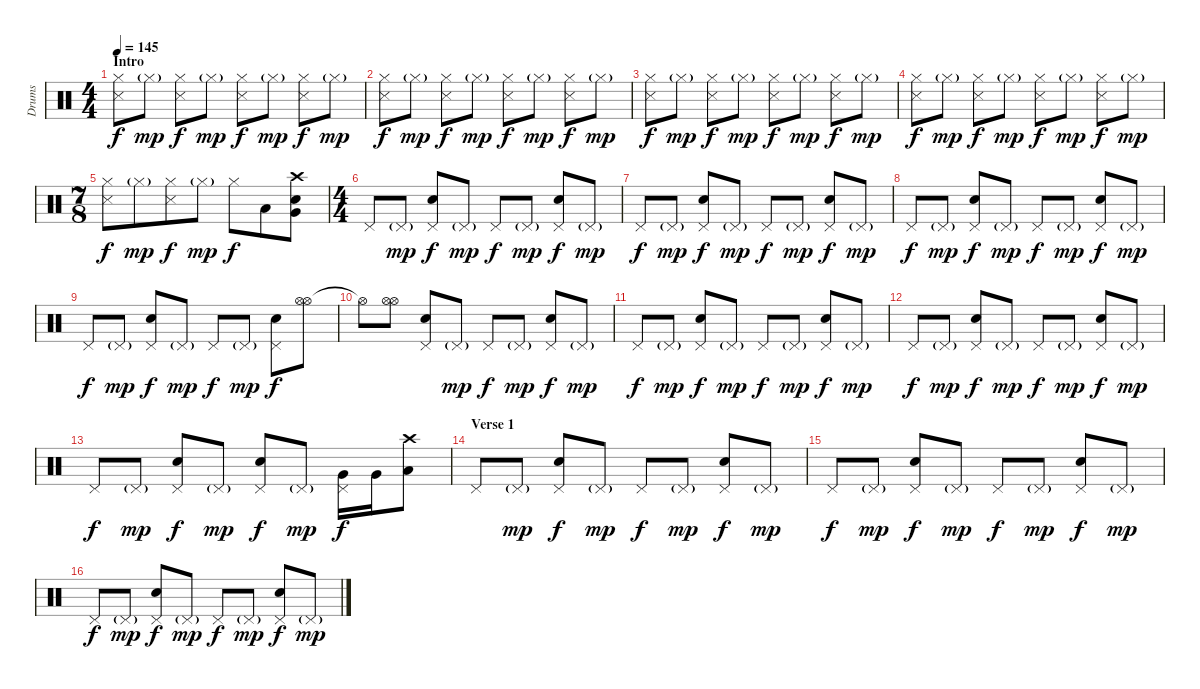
\track ("Drums" "Drums") {instrument percussion}
\staff {score}
\articulation defaults
\ts (4 4)
\section ("" "Intro")
\tempo 145
\clef neutral
\ks c
("Hi-Hat (closed)" "Snare (side stick) 3").8{dy f} "Hi-Hat (closed)"{g}.8{dy mp} ("Hi-Hat (closed)" "Snare (side stick) 3").8{dy f} "Hi-Hat (closed)"{g}.8{dy mp} ("Hi-Hat (closed)" "Snare (side stick) 3").8{dy f} "Hi-Hat (closed)"{g}.8{dy mp} ("Hi-Hat (closed)" "Snare (side stick) 3").8{dy f} "Hi-Hat (closed)"{g}.8{dy mp} |
("Hi-Hat (closed)" "Snare (side stick) 3").8{dy f} "Hi-Hat (closed)"{g}.8{dy mp} ("Hi-Hat (closed)" "Snare (side stick) 3").8{dy f} "Hi-Hat (closed)"{g}.8{dy mp} ("Hi-Hat (closed)" "Snare (side stick) 3").8{dy f} "Hi-Hat (closed)"{g}.8{dy mp} ("Hi-Hat (closed)" "Snare (side stick) 3").8{dy f} "Hi-Hat (closed)"{g}.8{dy mp} |
("Hi-Hat (closed)" "Snare (side stick) 3").8{dy f} "Hi-Hat (closed)"{g}.8{dy mp} ("Hi-Hat (closed)" "Snare (side stick) 3").8{dy f} "Hi-Hat (closed)"{g}.8{dy mp} ("Hi-Hat (closed)" "Snare (side stick) 3").8{dy f} "Hi-Hat (closed)"{g}.8{dy mp} ("Hi-Hat (closed)" "Snare (side stick) 3").8{dy f} "Hi-Hat (closed)"{g}.8{dy mp} |
("Hi-Hat (closed)" "Snare (side stick) 3").8{dy f} "Hi-Hat (closed)"{g}.8{dy mp} ("Hi-Hat (closed)" "Snare (side stick) 3").8{dy f} "Hi-Hat (closed)"{g}.8{dy mp} ("Hi-Hat (closed)" "Snare (side stick) 3").8{dy f} "Hi-Hat (closed)"{g}.8{dy mp} ("Hi-Hat (closed)" "Snare (side stick) 3").8{dy f} "Hi-Hat (closed)"{g}.8{dy mp} |
\ts (7 8)
("Hi-Hat (closed)" "Snare (side stick) 3").8{dy f} "Hi-Hat (closed)"{g}.8{dy mp} ("Hi-Hat (closed)" "Snare (side stick) 3").8{dy f} "Hi-Hat (closed)"{g}.8{dy mp} "Hi-Hat (closed)".8{dy f} "Low Floor Tom (hit)".8 ("Crash high (hit)" "Electric Snare (hit)" "Very Low Tom (hit)").8 |
\ts (4 4)
"Pedal Hi-Hat (hit)".8 "Pedal Hi-Hat (hit)"{g}.8{dy mp} ("Pedal Hi-Hat (hit)" "Electric Snare (hit)").8{dy f} "Pedal Hi-Hat (hit)"{g}.8{dy mp} "Pedal Hi-Hat (hit)".8{dy f} "Pedal Hi-Hat (hit)"{g}.8{dy mp} ("Pedal Hi-Hat (hit)" "Electric Snare (hit)").8{dy f} "Pedal Hi-Hat (hit)"{g}.8{dy mp} |
"Pedal Hi-Hat (hit)".8{dy f} "Pedal Hi-Hat (hit)"{g}.8{dy mp} ("Pedal Hi-Hat (hit)" "Electric Snare (hit)").8{dy f} "Pedal Hi-Hat (hit)"{g}.8{dy mp} "Pedal Hi-Hat (hit)".8{dy f} "Pedal Hi-Hat (hit)"{g}.8{dy mp} ("Pedal Hi-Hat (hit)" "Electric Snare (hit)").8{dy f} "Pedal Hi-Hat (hit)"{g}.8{dy mp} |
"Pedal Hi-Hat (hit)".8{dy f} "Pedal Hi-Hat (hit)"{g}.8{dy mp} ("Pedal Hi-Hat (hit)" "Electric Snare (hit)").8{dy f} "Pedal Hi-Hat (hit)"{g}.8{dy mp} "Pedal Hi-Hat (hit)".8{dy f} "Pedal Hi-Hat (hit)"{g}.8{dy mp} ("Pedal Hi-Hat (hit)" "Electric Snare (hit)").8{dy f} "Pedal Hi-Hat (hit)"{g}.8{dy mp} |
"Pedal Hi-Hat (hit)".8{dy f} "Pedal Hi-Hat (hit)"{g}.8{dy mp} ("Pedal Hi-Hat (hit)" "Electric Snare (hit)").8{dy f} "Pedal Hi-Hat (hit)"{g}.8{dy mp} "Pedal Hi-Hat (hit)".8{dy f} "Pedal Hi-Hat (hit)"{g}.8{dy mp} ("Pedal Hi-Hat (hit)" "Electric Snare (hit)").8{dy f} ("Hi-Hat (open)" "Hi-Hat (open)").8 |
"Hi-Hat (open)"{t}.8 ("Hi-Hat (open)" "Hi-Hat (open)").8 ("Pedal Hi-Hat (hit)" "Electric Snare (hit)").8 "Pedal Hi-Hat (hit)"{g}.8{dy mp} "Pedal Hi-Hat (hit)".8{dy f} "Pedal Hi-Hat (hit)"{g}.8{dy mp} ("Pedal Hi-Hat (hit)" "Electric Snare (hit)").8{dy f} "Pedal Hi-Hat (hit)"{g}.8{dy mp} |
"Pedal Hi-Hat (hit)".8{dy f} "Pedal Hi-Hat (hit)"{g}.8{dy mp} ("Pedal Hi-Hat (hit)" "Electric Snare (hit)").8{dy f} "Pedal Hi-Hat (hit)"{g}.8{dy mp} "Pedal Hi-Hat (hit)".8{dy f} "Pedal Hi-Hat (hit)"{g}.8{dy mp} ("Pedal Hi-Hat (hit)" "Electric Snare (hit)").8{dy f} "Pedal Hi-Hat (hit)"{g}.8{dy mp} |
"Pedal Hi-Hat (hit)".8{dy f} "Pedal Hi-Hat (hit)"{g}.8{dy mp} ("Pedal Hi-Hat (hit)" "Electric Snare (hit)").8{dy f} "Pedal Hi-Hat (hit)"{g}.8{dy mp} "Pedal Hi-Hat (hit)".8{dy f} "Pedal Hi-Hat (hit)"{g}.8{dy mp} ("Pedal Hi-Hat (hit)" "Electric Snare (hit)").8{dy f} "Pedal Hi-Hat (hit)"{g}.8{dy mp} |
"Pedal Hi-Hat (hit)".8{dy f} "Pedal Hi-Hat (hit)"{g}.8{dy mp} ("Pedal Hi-Hat (hit)" "Electric Snare (hit)").8{dy f} "Pedal Hi-Hat (hit)"{g}.8{dy mp} ("Pedal Hi-Hat (hit)" "Electric Snare (hit)").8{dy f} "Pedal Hi-Hat (hit)"{g}.8{dy mp} ("Pedal Hi-Hat (hit)" "Very Low Tom (hit)").16{dy f} "Very Low Tom (hit)".16 ("Crash high (hit)" "Low Floor Tom (hit)").8 |
\section ("" "Verse 1")
"Pedal Hi-Hat (hit)".8 "Pedal Hi-Hat (hit)"{g}.8{dy mp} ("Pedal Hi-Hat (hit)" "Electric Snare (hit)").8{dy f} "Pedal Hi-Hat (hit)"{g}.8{dy mp} "Pedal Hi-Hat (hit)".8{dy f} "Pedal Hi-Hat (hit)"{g}.8{dy mp} ("Pedal Hi-Hat (hit)" "Electric Snare (hit)").8{dy f} "Pedal Hi-Hat (hit)"{g}.8{dy mp} |
"Pedal Hi-Hat (hit)".8{dy f} "Pedal Hi-Hat (hit)"{g}.8{dy mp} ("Pedal Hi-Hat (hit)" "Electric Snare (hit)").8{dy f} "Pedal Hi-Hat (hit)"{g}.8{dy mp} "Pedal Hi-Hat (hit)".8{dy f} "Pedal Hi-Hat (hit)"{g}.8{dy mp} ("Pedal Hi-Hat (hit)" "Electric Snare (hit)").8{dy f} "Pedal Hi-Hat (hit)"{g}.8{dy mp} |
"Pedal Hi-Hat (hit)".8{dy f} "Pedal Hi-Hat (hit)"{g}.8{dy mp} ("Pedal Hi-Hat (hit)" "Electric Snare (hit)").8{dy f} "Pedal Hi-Hat (hit)"{g}.8{dy mp} "Pedal Hi-Hat (hit)".8{dy f} "Pedal Hi-Hat (hit)"{g}.8{dy mp} ("Pedal Hi-Hat (hit)" "Electric Snare (hit)").8{dy f} "Pedal Hi-Hat (hit)"{g}.8{dy mp}
